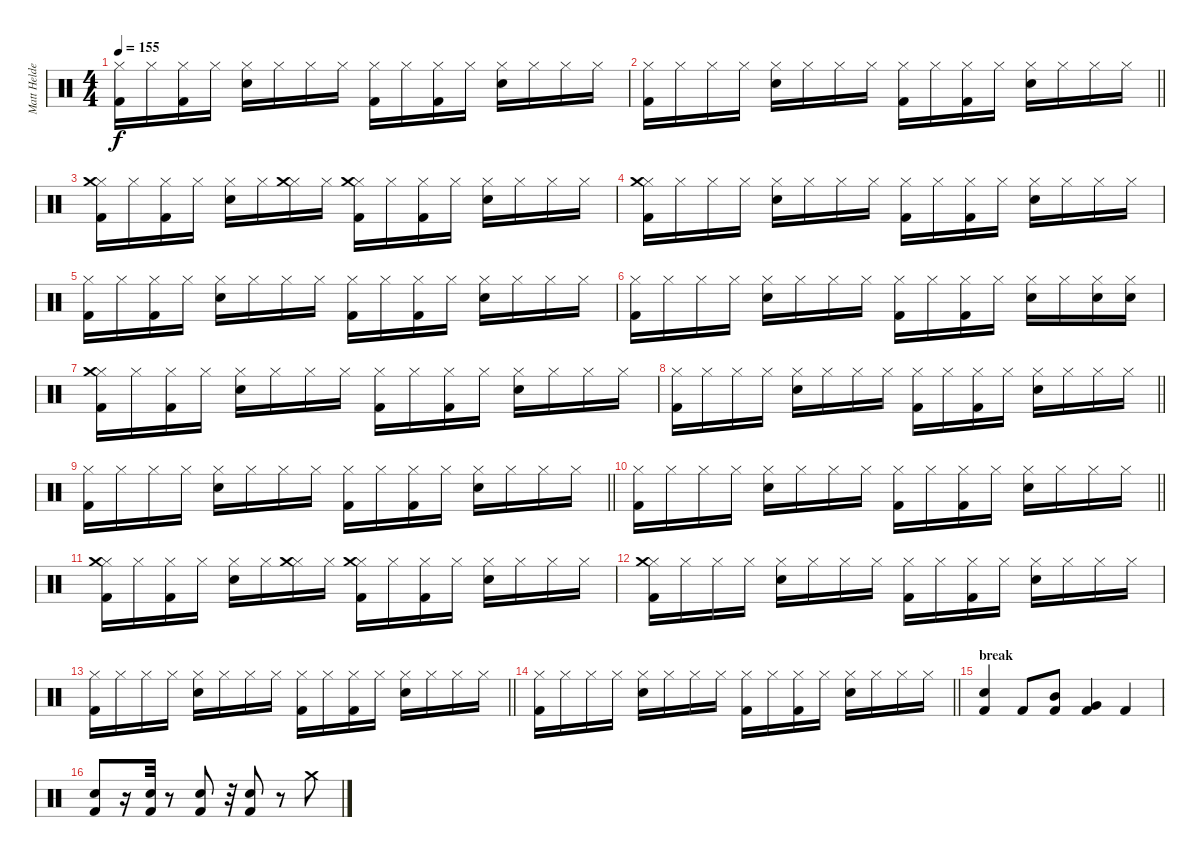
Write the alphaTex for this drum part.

\track ("Matt Helders" "Matt Helde") {instrument percussion}
\staff {score}
\articulation defaults
\ts (4 4)
\tempo 155
\clef neutral
\ks c
("Hi-Hat (closed)" "Kick (hit) 2").16{dy f} "Hi-Hat (closed)".16 ("Hi-Hat (closed)" "Kick (hit) 2").16 "Hi-Hat (closed)".16 ("Hi-Hat (closed)" "Snare (hit) 2").16 "Hi-Hat (closed)".16 "Hi-Hat (closed)".16 "Hi-Hat (closed)".16 ("Hi-Hat (closed)" "Kick (hit) 2").16 "Hi-Hat (closed)".16 ("Hi-Hat (closed)" "Kick (hit) 2").16 "Hi-Hat (closed)".16 ("Hi-Hat (closed)" "Snare (hit) 2").16 "Hi-Hat (closed)".16 "Hi-Hat (closed)".16 "Hi-Hat (closed)".16 |
\barLineRight lightlight
("Hi-Hat (closed)" "Kick (hit) 2").16 "Hi-Hat (closed)".16 "Hi-Hat (closed)".16 "Hi-Hat (closed)".16 ("Hi-Hat (closed)" "Snare (hit) 2").16 "Hi-Hat (closed)".16 "Hi-Hat (closed)".16 "Hi-Hat (closed)".16 ("Hi-Hat (closed)" "Kick (hit) 2").16 "Hi-Hat (closed)".16 ("Hi-Hat (closed)" "Kick (hit) 2").16 "Hi-Hat (closed)".16 ("Hi-Hat (closed)" "Snare (hit) 2").16 "Hi-Hat (closed)".16 "Hi-Hat (closed)".16 "Hi-Hat (closed)".16 |
("Hi-Hat (closed)" "Kick (hit) 2" "Crash medium (hit)").16 "Hi-Hat (closed)".16 ("Hi-Hat (closed)" "Kick (hit) 2").16 "Hi-Hat (closed)".16 ("Hi-Hat (closed)" "Snare (hit) 2").16 "Hi-Hat (closed)".16 ("Hi-Hat (closed)" "Crash medium (hit)").16 "Hi-Hat (closed)".16 ("Hi-Hat (closed)" "Kick (hit) 2" "Crash medium (hit)").16 "Hi-Hat (closed)".16 ("Hi-Hat (closed)" "Kick (hit) 2").16 "Hi-Hat (closed)".16 ("Hi-Hat (closed)" "Snare (hit) 2").16 "Hi-Hat (closed)".16 "Hi-Hat (closed)".16 "Hi-Hat (closed)".16 |
("Hi-Hat (closed)" "Kick (hit) 2" "Crash medium (hit)").16 "Hi-Hat (closed)".16 "Hi-Hat (closed)".16 "Hi-Hat (closed)".16 ("Hi-Hat (closed)" "Snare (hit) 2").16 "Hi-Hat (closed)".16 "Hi-Hat (closed)".16 "Hi-Hat (closed)".16 ("Hi-Hat (closed)" "Kick (hit) 2").16 "Hi-Hat (closed)".16 ("Hi-Hat (closed)" "Kick (hit) 2").16 "Hi-Hat (closed)".16 ("Hi-Hat (closed)" "Snare (hit) 2").16 "Hi-Hat (closed)".16 "Hi-Hat (closed)".16 "Hi-Hat (closed)".16 |
("Hi-Hat (closed)" "Kick (hit) 2").16 "Hi-Hat (closed)".16 ("Hi-Hat (closed)" "Kick (hit) 2").16 "Hi-Hat (closed)".16 ("Hi-Hat (closed)" "Snare (hit) 2").16 "Hi-Hat (closed)".16 "Hi-Hat (closed)".16 "Hi-Hat (closed)".16 ("Hi-Hat (closed)" "Kick (hit) 2").16 "Hi-Hat (closed)".16 ("Hi-Hat (closed)" "Kick (hit) 2").16 "Hi-Hat (closed)".16 ("Hi-Hat (closed)" "Snare (hit) 2").16 "Hi-Hat (closed)".16 "Hi-Hat (closed)".16 "Hi-Hat (closed)".16 |
("Hi-Hat (closed)" "Kick (hit) 2").16 "Hi-Hat (closed)".16 "Hi-Hat (closed)".16 "Hi-Hat (closed)".16 ("Hi-Hat (closed)" "Snare (hit) 2").16 "Hi-Hat (closed)".16 "Hi-Hat (closed)".16 "Hi-Hat (closed)".16 ("Hi-Hat (closed)" "Kick (hit) 2").16 "Hi-Hat (closed)".16 ("Hi-Hat (closed)" "Kick (hit) 2").16 "Hi-Hat (closed)".16 ("Hi-Hat (closed)" "Snare (hit) 2").16 "Hi-Hat (closed)".16 ("Hi-Hat (closed)" "Snare (hit) 2").16 ("Hi-Hat (closed)" "Snare (hit) 2").16 |
("Hi-Hat (closed)" "Kick (hit) 2" "Crash medium (hit)").16 "Hi-Hat (closed)".16 ("Hi-Hat (closed)" "Kick (hit) 2").16 "Hi-Hat (closed)".16 ("Hi-Hat (closed)" "Snare (hit) 2").16 "Hi-Hat (closed)".16 "Hi-Hat (closed)".16 "Hi-Hat (closed)".16 ("Hi-Hat (closed)" "Kick (hit) 2").16 "Hi-Hat (closed)".16 ("Hi-Hat (closed)" "Kick (hit) 2").16 "Hi-Hat (closed)".16 ("Hi-Hat (closed)" "Snare (hit) 2").16 "Hi-Hat (closed)".16 "Hi-Hat (closed)".16 "Hi-Hat (closed)".16 |
\barLineRight lightlight
("Hi-Hat (closed)" "Kick (hit) 2").16 "Hi-Hat (closed)".16 "Hi-Hat (closed)".16 "Hi-Hat (closed)".16 ("Hi-Hat (closed)" "Snare (hit) 2").16 "Hi-Hat (closed)".16 "Hi-Hat (closed)".16 "Hi-Hat (closed)".16 ("Hi-Hat (closed)" "Kick (hit) 2").16 "Hi-Hat (closed)".16 ("Hi-Hat (closed)" "Kick (hit) 2").16 "Hi-Hat (closed)".16 ("Hi-Hat (closed)" "Snare (hit) 2").16 "Hi-Hat (closed)".16 "Hi-Hat (closed)".16 "Hi-Hat (closed)".16 |
\barLineRight lightlight
("Hi-Hat (closed)" "Kick (hit) 2").16 "Hi-Hat (closed)".16 "Hi-Hat (closed)".16 "Hi-Hat (closed)".16 ("Hi-Hat (closed)" "Snare (hit) 2").16 "Hi-Hat (closed)".16 "Hi-Hat (closed)".16 "Hi-Hat (closed)".16 ("Hi-Hat (closed)" "Kick (hit) 2").16 "Hi-Hat (closed)".16 ("Hi-Hat (closed)" "Kick (hit) 2").16 "Hi-Hat (closed)".16 ("Hi-Hat (closed)" "Snare (hit) 2").16 "Hi-Hat (closed)".16 "Hi-Hat (closed)".16 "Hi-Hat (closed)".16 |
\barLineRight lightlight
("Hi-Hat (closed)" "Kick (hit) 2").16 "Hi-Hat (closed)".16 "Hi-Hat (closed)".16 "Hi-Hat (closed)".16 ("Hi-Hat (closed)" "Snare (hit) 2").16 "Hi-Hat (closed)".16 "Hi-Hat (closed)".16 "Hi-Hat (closed)".16 ("Hi-Hat (closed)" "Kick (hit) 2").16 "Hi-Hat (closed)".16 ("Hi-Hat (closed)" "Kick (hit) 2").16 "Hi-Hat (closed)".16 ("Hi-Hat (closed)" "Snare (hit) 2").16 "Hi-Hat (closed)".16 "Hi-Hat (closed)".16 "Hi-Hat (closed)".16 |
("Hi-Hat (closed)" "Kick (hit) 2" "Crash medium (hit)").16 "Hi-Hat (closed)".16 ("Hi-Hat (closed)" "Kick (hit) 2").16 "Hi-Hat (closed)".16 ("Hi-Hat (closed)" "Snare (hit) 2").16 "Hi-Hat (closed)".16 ("Hi-Hat (closed)" "Crash medium (hit)").16 "Hi-Hat (closed)".16 ("Hi-Hat (closed)" "Kick (hit) 2" "Crash medium (hit)").16 "Hi-Hat (closed)".16 ("Hi-Hat (closed)" "Kick (hit) 2").16 "Hi-Hat (closed)".16 ("Hi-Hat (closed)" "Snare (hit) 2").16 "Hi-Hat (closed)".16 "Hi-Hat (closed)".16 "Hi-Hat (closed)".16 |
("Hi-Hat (closed)" "Kick (hit) 2" "Crash medium (hit)").16 "Hi-Hat (closed)".16 "Hi-Hat (closed)".16 "Hi-Hat (closed)".16 ("Hi-Hat (closed)" "Snare (hit) 2").16 "Hi-Hat (closed)".16 "Hi-Hat (closed)".16 "Hi-Hat (closed)".16 ("Hi-Hat (closed)" "Kick (hit) 2").16 "Hi-Hat (closed)".16 ("Hi-Hat (closed)" "Kick (hit) 2").16 "Hi-Hat (closed)".16 ("Hi-Hat (closed)" "Snare (hit) 2").16 "Hi-Hat (closed)".16 "Hi-Hat (closed)".16 "Hi-Hat (closed)".16 |
\barLineRight lightlight
("Hi-Hat (closed)" "Kick (hit) 2").16 "Hi-Hat (closed)".16 "Hi-Hat (closed)".16 "Hi-Hat (closed)".16 ("Hi-Hat (closed)" "Snare (hit) 2").16 "Hi-Hat (closed)".16 "Hi-Hat (closed)".16 "Hi-Hat (closed)".16 ("Hi-Hat (closed)" "Kick (hit) 2").16 "Hi-Hat (closed)".16 ("Hi-Hat (closed)" "Kick (hit) 2").16 "Hi-Hat (closed)".16 ("Hi-Hat (closed)" "Snare (hit) 2").16 "Hi-Hat (closed)".16 "Hi-Hat (closed)".16 "Hi-Hat (closed)".16 |
\barLineRight lightlight
("Hi-Hat (closed)" "Kick (hit) 2").16 "Hi-Hat (closed)".16 "Hi-Hat (closed)".16 "Hi-Hat (closed)".16 ("Hi-Hat (closed)" "Snare (hit) 2").16 "Hi-Hat (closed)".16 "Hi-Hat (closed)".16 "Hi-Hat (closed)".16 ("Hi-Hat (closed)" "Kick (hit) 2").16 "Hi-Hat (closed)".16 ("Hi-Hat (closed)" "Kick (hit) 2").16 "Hi-Hat (closed)".16 ("Hi-Hat (closed)" "Snare (hit) 2").16 "Hi-Hat (closed)".16 "Hi-Hat (closed)".16 "Hi-Hat (closed)".16 |
\section ("" "break")
("Snare (hit) 2" "Kick (hit) 2").4 "Kick (hit) 2".8 ("Mid Tom (hit)" "Kick (hit) 2").8 ("Very Low Tom (hit)" "Kick (hit) 2").4 "Kick (hit) 2".4 |
("Snare (hit) 2" "Kick (hit) 2").8 r.16 ("Snare (hit) 2" "Kick (hit) 2").32 r.8 ("Snare (hit) 2" "Kick (hit) 2").8 r.32 ("Snare (hit) 2" "Kick (hit) 2").8 r.8 "Crash medium (hit)".8
